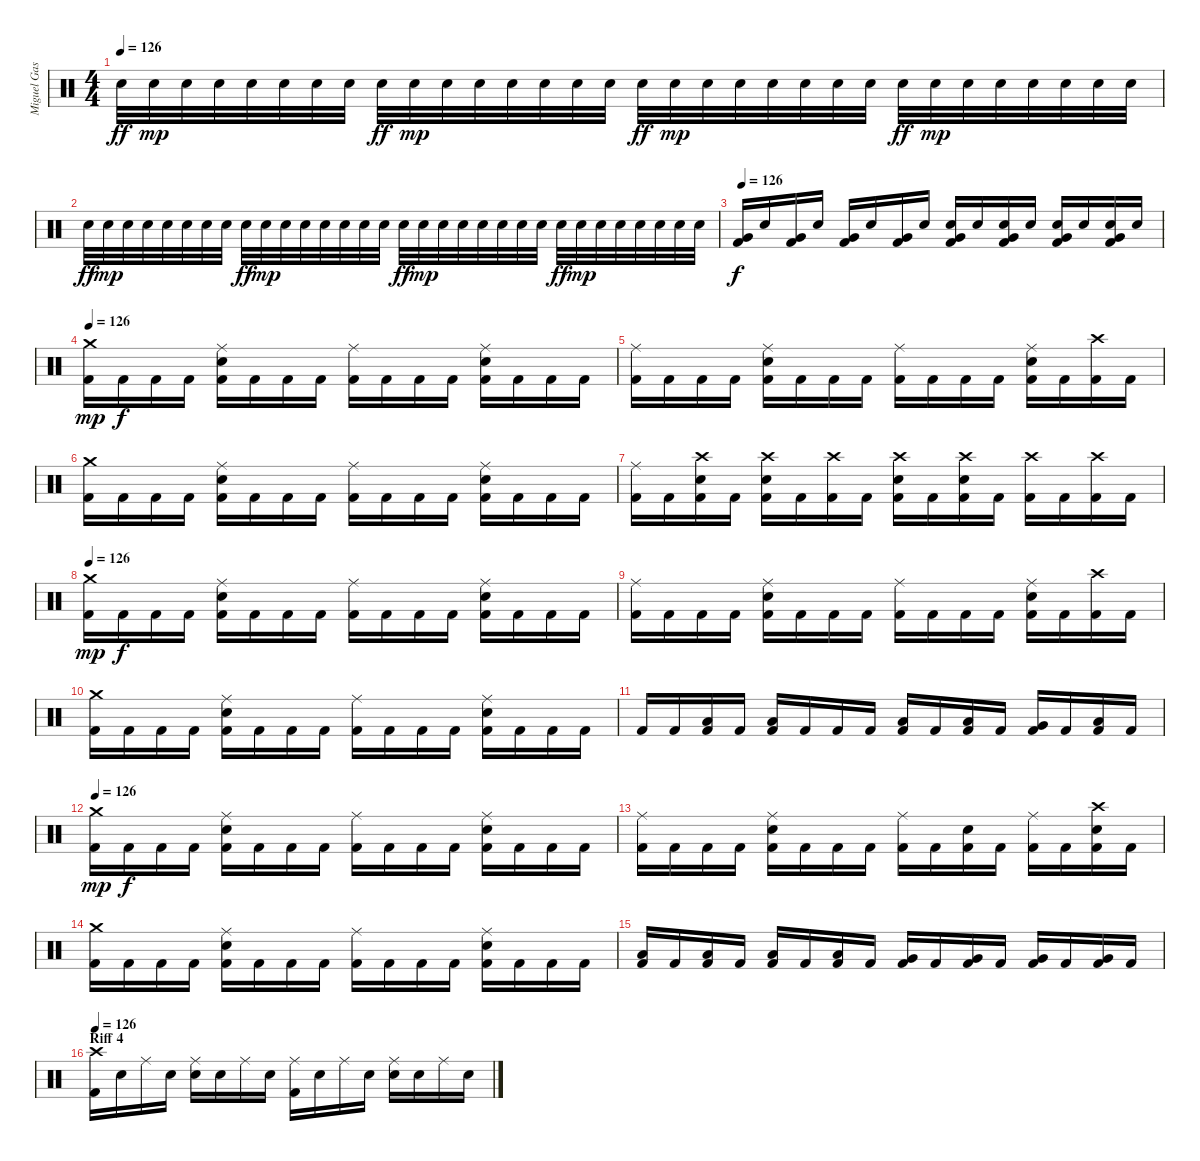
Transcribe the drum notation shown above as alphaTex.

\track ("Miguel Gaspar - Drums" "Miguel Gas") {instrument percussion}
\staff {score}
\articulation defaults
\ts (4 4)
\tempo 126
\clef neutral
\ks c "Electric Snare (hit)".32{dy ff} "Electric Snare (hit)".32{dy mp} "Electric Snare (hit)".32 "Electric Snare (hit)".32 "Electric Snare (hit)".32 "Electric Snare (hit)".32 "Electric Snare (hit)".32 "Electric Snare (hit)".32 "Electric Snare (hit)".32{dy ff} "Electric Snare (hit)".32{dy mp} "Electric Snare (hit)".32 "Electric Snare (hit)".32 "Electric Snare (hit)".32 "Electric Snare (hit)".32 "Electric Snare (hit)".32 "Electric Snare (hit)".32 "Electric Snare (hit)".32{dy ff} "Electric Snare (hit)".32{dy mp} "Electric Snare (hit)".32 "Electric Snare (hit)".32 "Electric Snare (hit)".32 "Electric Snare (hit)".32 "Electric Snare (hit)".32 "Electric Snare (hit)".32 "Electric Snare (hit)".32{dy ff} "Electric Snare (hit)".32{dy mp} "Electric Snare (hit)".32 "Electric Snare (hit)".32 "Electric Snare (hit)".32 "Electric Snare (hit)".32 "Electric Snare (hit)".32 "Electric Snare (hit)".32
|
"Electric Snare (hit)".32{dy ff} "Electric Snare (hit)".32{dy mp} "Electric Snare (hit)".32 "Electric Snare (hit)".32 "Electric Snare (hit)".32 "Electric Snare (hit)".32 "Electric Snare (hit)".32 "Electric Snare (hit)".32 "Electric Snare (hit)".32{dy ff} "Electric Snare (hit)".32{dy mp} "Electric Snare (hit)".32 "Electric Snare (hit)".32 "Electric Snare (hit)".32 "Electric Snare (hit)".32 "Electric Snare (hit)".32 "Electric Snare (hit)".32 "Electric Snare (hit)".32{dy ff} "Electric Snare (hit)".32{dy mp} "Electric Snare (hit)".32 "Electric Snare (hit)".32 "Electric Snare (hit)".32 "Electric Snare (hit)".32 "Electric Snare (hit)".32 "Electric Snare (hit)".32 "Electric Snare (hit)".32{dy ff} "Electric Snare (hit)".32{dy mp} "Electric Snare (hit)".32 "Electric Snare (hit)".32 "Electric Snare (hit)".32 "Electric Snare (hit)".32 "Electric Snare (hit)".32 "Electric Snare (hit)".32 |
\tempo 126
("Very Low Tom (hit)" "Kick (hit) 2").16{dy f volume 16 balance 8} "Snare (hit)".16 ("Very Low Tom (hit)" "Kick (hit) 2").16 "Snare (hit)".16 ("Very Low Tom (hit)" "Kick (hit) 2").16 "Snare (hit)".16 ("Very Low Tom (hit)" "Kick (hit) 2").16 "Snare (hit)".16 ("Very Low Tom (hit)" "Electric Snare (hit)" "Kick (hit) 2").16 "Snare (hit)".16 ("Very Low Tom (hit)" "Electric Snare (hit)" "Kick (hit) 2").16 "Snare (hit)".16 ("Very Low Tom (hit)" "Electric Snare (hit)" "Kick (hit) 2").16 "Snare (hit)".16 ("Very Low Tom (hit)" "Electric Snare (hit)" "Kick (hit) 2").16 "Snare (hit)".16 |
\section ("" "")
\tempo 126
("Crash medium (hit)" "Kick (hit) 2").16{dy mp volume 16 balance 8} "Kick (hit) 2".16{dy f} "Kick (hit) 2".16 "Kick (hit) 2".16 ("Ride (middle)" "Electric Snare (hit)" "Kick (hit) 2").16 "Kick (hit) 2".16 "Kick (hit) 2".16 "Kick (hit) 2".16 ("Ride (middle)" "Kick (hit) 2").16 "Kick (hit) 2".16 "Kick (hit) 2".16 "Kick (hit) 2".16 ("Ride (middle)" "Electric Snare (hit)" "Kick (hit) 2").16 "Kick (hit) 2".16 "Kick (hit) 2".16 "Kick (hit) 2".16 |
("Ride (middle)" "Kick (hit) 2").16 "Kick (hit) 2".16 "Kick (hit) 2".16 "Kick (hit) 2".16 ("Ride (middle)" "Electric Snare (hit)" "Kick (hit) 2").16 "Kick (hit) 2".16 "Kick (hit) 2".16 "Kick (hit) 2".16 ("Ride (middle)" "Kick (hit) 2").16 "Kick (hit) 2".16 "Kick (hit) 2".16 "Kick (hit) 2".16 ("Ride (middle)" "Electric Snare (hit)" "Kick (hit) 2").16 "Kick (hit) 2".16 ("Crash high (hit)" "Kick (hit) 2").16 "Kick (hit) 2".16 |
("Crash medium (hit)" "Kick (hit) 2").16 "Kick (hit) 2".16 "Kick (hit) 2".16 "Kick (hit) 2".16 ("Ride (middle)" "Electric Snare (hit)" "Kick (hit) 2").16 "Kick (hit) 2".16 "Kick (hit) 2".16 "Kick (hit) 2".16 ("Ride (middle)" "Kick (hit) 2").16 "Kick (hit) 2".16 "Kick (hit) 2".16 "Kick (hit) 2".16 ("Ride (middle)" "Electric Snare (hit)" "Kick (hit) 2").16 "Kick (hit) 2".16 "Kick (hit) 2".16 "Kick (hit) 2".16 |
("Ride (middle)" "Kick (hit) 2").16 "Kick (hit) 2".16 ("Crash high (hit)" "Electric Snare (hit)" "Kick (hit) 2").16 "Kick (hit) 2".16 ("Crash high (hit)" "Electric Snare (hit)" "Kick (hit) 2").16 "Kick (hit) 2".16 ("Crash high (hit)" "Kick (hit) 2").16 "Kick (hit) 2".16 ("Crash high (hit)" "Electric Snare (hit)" "Kick (hit) 2").16 "Kick (hit) 2".16 ("Crash high (hit)" "Electric Snare (hit)" "Kick (hit) 2").16 "Kick (hit) 2".16 ("Crash high (hit)" "Kick (hit) 2").16 "Kick (hit) 2".16 ("Crash high (hit)" "Kick (hit) 2").16 "Kick (hit) 2".16 |
\tempo 126
("Crash medium (hit)" "Kick (hit) 2").16{dy mp volume 16 balance 8} "Kick (hit) 2".16{dy f} "Kick (hit) 2".16 "Kick (hit) 2".16 ("Ride (middle)" "Electric Snare (hit)" "Kick (hit) 2").16 "Kick (hit) 2".16 "Kick (hit) 2".16 "Kick (hit) 2".16 ("Ride (middle)" "Kick (hit) 2").16 "Kick (hit) 2".16 "Kick (hit) 2".16 "Kick (hit) 2".16 ("Ride (middle)" "Electric Snare (hit)" "Kick (hit) 2").16 "Kick (hit) 2".16 "Kick (hit) 2".16 "Kick (hit) 2".16 |
("Ride (middle)" "Kick (hit) 2").16 "Kick (hit) 2".16 "Kick (hit) 2".16 "Kick (hit) 2".16 ("Ride (middle)" "Electric Snare (hit)" "Kick (hit) 2").16 "Kick (hit) 2".16 "Kick (hit) 2".16 "Kick (hit) 2".16 ("Ride (middle)" "Kick (hit) 2").16 "Kick (hit) 2".16 "Kick (hit) 2".16 "Kick (hit) 2".16 ("Ride (middle)" "Electric Snare (hit)" "Kick (hit) 2").16 "Kick (hit) 2".16 ("Crash high (hit)" "Kick (hit) 2").16 "Kick (hit) 2".16 |
("Crash medium (hit)" "Kick (hit) 2").16 "Kick (hit) 2".16 "Kick (hit) 2".16 "Kick (hit) 2".16 ("Ride (middle)" "Electric Snare (hit)" "Kick (hit) 2").16 "Kick (hit) 2".16 "Kick (hit) 2".16 "Kick (hit) 2".16 ("Ride (middle)" "Kick (hit) 2").16 "Kick (hit) 2".16 "Kick (hit) 2".16 "Kick (hit) 2".16 ("Ride (middle)" "Electric Snare (hit)" "Kick (hit) 2").16 "Kick (hit) 2".16 "Kick (hit) 2".16 "Kick (hit) 2".16 |
"Kick (hit) 2".16 "Kick (hit) 2".16 ("Low Tom (hit)" "Kick (hit) 2").16 "Kick (hit) 2".16 ("Low Tom (hit)" "Kick (hit) 2").16 "Kick (hit) 2".16 "Kick (hit) 2".16 "Kick (hit) 2".16 ("Low Tom (hit)" "Kick (hit) 2").16 "Kick (hit) 2".16 ("Low Tom (hit)" "Kick (hit) 2").16 "Kick (hit) 2".16 ("Very Low Tom (hit)" "Kick (hit) 2").16 "Kick (hit) 2".16 ("Low Floor Tom (hit)" "Kick (hit) 2").16 "Kick (hit) 2".16 |
\tempo 126
("Crash medium (hit)" "Kick (hit) 2").16{dy mp volume 16 balance 8} "Kick (hit) 2".16{dy f} "Kick (hit) 2".16 "Kick (hit) 2".16 ("Ride (middle)" "Electric Snare (hit)" "Kick (hit) 2").16 "Kick (hit) 2".16 "Kick (hit) 2".16 "Kick (hit) 2".16 ("Ride (middle)" "Kick (hit) 2").16 "Kick (hit) 2".16 "Kick (hit) 2".16 "Kick (hit) 2".16 ("Ride (middle)" "Electric Snare (hit)" "Kick (hit) 2").16 "Kick (hit) 2".16 "Kick (hit) 2".16 "Kick (hit) 2".16 |
("Ride (middle)" "Kick (hit) 2").16 "Kick (hit) 2".16 "Kick (hit) 2".16 "Kick (hit) 2".16 ("Ride (middle)" "Electric Snare (hit)" "Kick (hit) 2").16 "Kick (hit) 2".16 "Kick (hit) 2".16 "Kick (hit) 2".16 ("Ride (middle)" "Kick (hit) 2").16 "Kick (hit) 2".16 ("Electric Snare (hit)" "Kick (hit) 2").16 "Kick (hit) 2".16 ("Ride (middle)" "Kick (hit) 2").16 "Kick (hit) 2".16 ("Crash high (hit)" "Electric Snare (hit)" "Kick (hit) 2").16 "Kick (hit) 2".16 |
("Crash medium (hit)" "Kick (hit) 2").16 "Kick (hit) 2".16 "Kick (hit) 2".16 "Kick (hit) 2".16 ("Ride (middle)" "Electric Snare (hit)" "Kick (hit) 2").16 "Kick (hit) 2".16 "Kick (hit) 2".16 "Kick (hit) 2".16 ("Ride (middle)" "Kick (hit) 2").16 "Kick (hit) 2".16 "Kick (hit) 2".16 "Kick (hit) 2".16 ("Ride (middle)" "Electric Snare (hit)" "Kick (hit) 2").16 "Kick (hit) 2".16 "Kick (hit) 2".16 "Kick (hit) 2".16 |
("Low Tom (hit)" "Kick (hit) 2").16 "Kick (hit) 2".16 ("Low Tom (hit)" "Kick (hit) 2").16 "Kick (hit) 2".16 ("Low Tom (hit)" "Kick (hit) 2").16 "Kick (hit) 2".16 ("Low Tom (hit)" "Kick (hit) 2").16 "Kick (hit) 2".16 ("Very Low Tom (hit)" "Kick (hit) 2").16 "Kick (hit) 2".16 ("Very Low Tom (hit)" "Kick (hit) 2").16 "Kick (hit) 2".16 ("Very Low Tom (hit)" "Kick (hit) 2").16 "Kick (hit) 2".16 ("Very Low Tom (hit)" "Kick (hit) 2").16 "Kick (hit) 2".16 |
\section ("" "Riff 4")
\tempo 126
("Crash high (hit)" "Kick (hit) 2").16{volume 16 balance 8} "Snare (hit)".16 "Ride (middle)".16 "Snare (hit)".16 ("Ride (middle)" "Electric Snare (hit)").16 "Snare (hit)".16 "Ride (middle)".16 "Snare (hit)".16 ("Ride (middle)" "Kick (hit) 2").16 "Snare (hit)".16 "Ride (middle)".16 "Snare (hit)".16 ("Ride (middle)" "Electric Snare (hit)").16 "Snare (hit)".16 "Ride (middle)".16 "Snare (hit)".16
